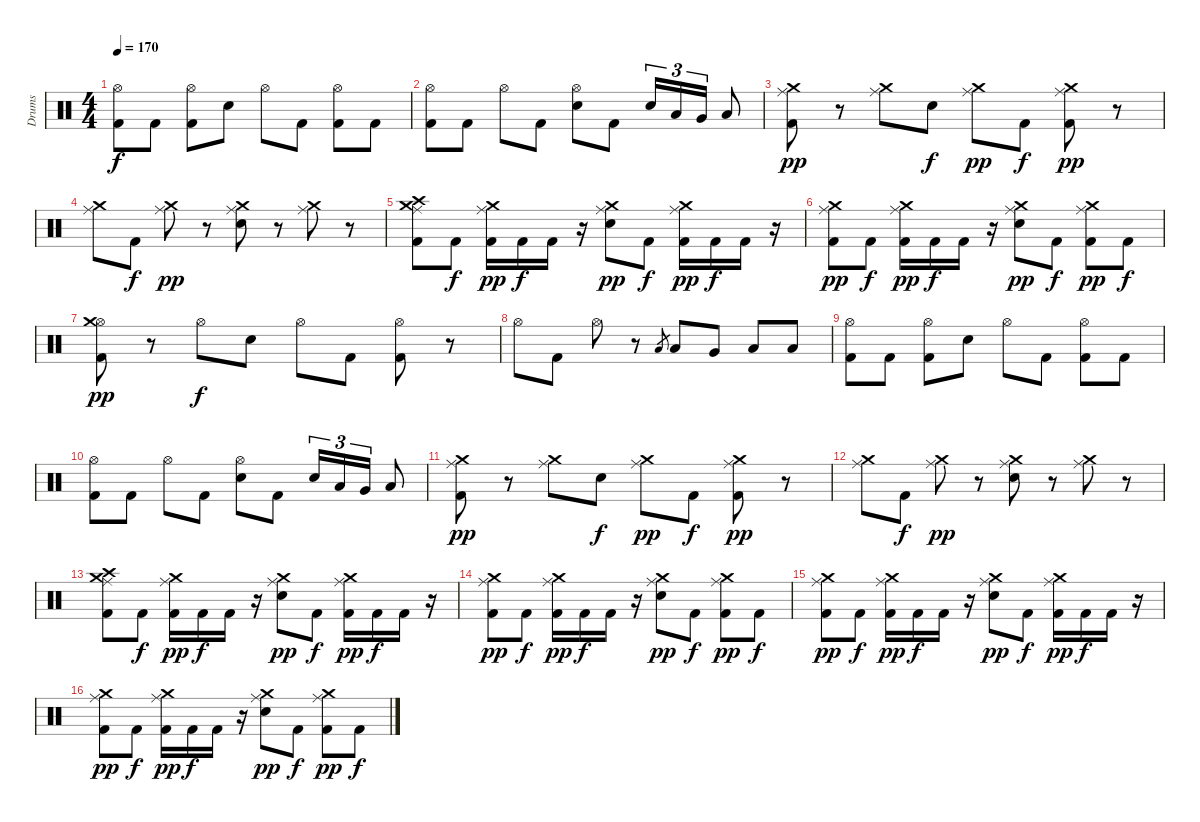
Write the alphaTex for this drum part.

\track ("Drums" "Drums") {instrument percussion}
\staff {score}
\articulation defaults
\ts (4 4)
\tempo 170
\clef neutral
\ks c
("Hi-Hat (open)" "Kick (hit) 2").8{dy f} "Kick (hit) 2".8 ("Hi-Hat (open)" "Kick (hit) 2").8 "Electric Snare (hit)".8 "Hi-Hat (open)".8 "Kick (hit) 2".8 ("Hi-Hat (open)" "Kick (hit) 2").8 "Kick (hit) 2".8 |
("Hi-Hat (open)" "Kick (hit) 2").8 "Kick (hit) 2".8 "Hi-Hat (open)".8 "Kick (hit) 2".8 ("Hi-Hat (open)" "Electric Snare (hit)").8 "Kick (hit) 2".8 "Electric Snare (hit)".16{tu (3 2)} "Low Tom (hit)".16{tu (3 2)} "Very Low Tom (hit)".16{tu (3 2)} "Low Floor Tom (hit)".8 |
("Ride (middle)" "Kick (hit) 2" "Crash medium (hit)").8{dy pp} r.8 ("Ride (middle)" "Crash medium (hit)").8 "Electric Snare (hit)".8{dy f} ("Ride (middle)" "Crash medium (hit)").8{dy pp} "Kick (hit) 2".8{dy f} ("Ride (middle)" "Kick (hit) 2" "Crash medium (hit)").8{dy pp} r.8 |
("Ride (middle)" "Crash medium (hit)").8 "Kick (hit) 2".8{dy f} ("Ride (middle)" "Crash medium (hit)").8{dy pp} r.8 ("Ride (middle)" "Electric Snare (hit)" "Crash medium (hit)").8 r.8 ("Ride (middle)" "Crash medium (hit)").8 r.8 |
("Ride (middle)" "Kick (hit) 2" "Crash high (hit)" "Crash medium (hit)").8 "Kick (hit) 2".8{dy f} ("Ride (middle)" "Kick (hit) 2" "Crash medium (hit)").16{dy pp} "Kick (hit) 2".16{dy f} "Kick (hit) 2".16 r.16 ("Ride (middle)" "Electric Snare (hit)" "Crash medium (hit)").8{dy pp} "Kick (hit) 2".8{dy f} ("Ride (middle)" "Kick (hit) 2" "Crash medium (hit)").16{dy pp} "Kick (hit) 2".16{dy f} "Kick (hit) 2".16 r.16 |
("Ride (middle)" "Kick (hit) 2" "Crash medium (hit)").8{dy pp} "Kick (hit) 2".8{dy f} ("Ride (middle)" "Kick (hit) 2" "Crash medium (hit)").16{dy pp} "Kick (hit) 2".16{dy f} "Kick (hit) 2".16 r.16 ("Ride (middle)" "Electric Snare (hit)" "Crash medium (hit)").8{dy pp} "Kick (hit) 2".8{dy f} ("Ride (middle)" "Kick (hit) 2" "Crash medium (hit)").8{dy pp} "Kick (hit) 2".8{dy f} |
("Hi-Hat (open)" "Kick (hit) 2" "Crash medium (hit)").8{dy pp} r.8 "Hi-Hat (open)".8{dy f} "Electric Snare (hit)".8 "Hi-Hat (open)".8 "Kick (hit) 2".8 ("Hi-Hat (open)" "Kick (hit) 2").8 r.8 |
"Hi-Hat (open)".8 "Kick (hit) 2".8 "Hi-Hat (open)".8 r.8 "Low Tom (hit)".8{gr} "Low Tom (hit)".8 "Very Low Tom (hit)".8 "Low Floor Tom (hit)".8 "Low Floor Tom (hit)".8 |
("Hi-Hat (open)" "Kick (hit) 2").8 "Kick (hit) 2".8 ("Hi-Hat (open)" "Kick (hit) 2").8 "Electric Snare (hit)".8 "Hi-Hat (open)".8 "Kick (hit) 2".8 ("Hi-Hat (open)" "Kick (hit) 2").8 "Kick (hit) 2".8 |
("Hi-Hat (open)" "Kick (hit) 2").8 "Kick (hit) 2".8 "Hi-Hat (open)".8 "Kick (hit) 2".8 ("Hi-Hat (open)" "Electric Snare (hit)").8 "Kick (hit) 2".8 "Electric Snare (hit)".16{tu (3 2)} "Low Tom (hit)".16{tu (3 2)} "Very Low Tom (hit)".16{tu (3 2)} "Low Floor Tom (hit)".8 |
("Ride (middle)" "Kick (hit) 2" "Crash medium (hit)").8{dy pp} r.8 ("Ride (middle)" "Crash medium (hit)").8 "Electric Snare (hit)".8{dy f} ("Ride (middle)" "Crash medium (hit)").8{dy pp} "Kick (hit) 2".8{dy f} ("Ride (middle)" "Kick (hit) 2" "Crash medium (hit)").8{dy pp} r.8 |
("Ride (middle)" "Crash medium (hit)").8 "Kick (hit) 2".8{dy f} ("Ride (middle)" "Crash medium (hit)").8{dy pp} r.8 ("Ride (middle)" "Electric Snare (hit)" "Crash medium (hit)").8 r.8 ("Ride (middle)" "Crash medium (hit)").8 r.8 |
("Ride (middle)" "Kick (hit) 2" "Crash high (hit)" "Crash medium (hit)").8 "Kick (hit) 2".8{dy f} ("Ride (middle)" "Kick (hit) 2" "Crash medium (hit)").16{dy pp} "Kick (hit) 2".16{dy f} "Kick (hit) 2".16 r.16 ("Ride (middle)" "Electric Snare (hit)" "Crash medium (hit)").8{dy pp} "Kick (hit) 2".8{dy f} ("Ride (middle)" "Kick (hit) 2" "Crash medium (hit)").16{dy pp} "Kick (hit) 2".16{dy f} "Kick (hit) 2".16 r.16 |
("Ride (middle)" "Kick (hit) 2" "Crash medium (hit)").8{dy pp} "Kick (hit) 2".8{dy f} ("Ride (middle)" "Kick (hit) 2" "Crash medium (hit)").16{dy pp} "Kick (hit) 2".16{dy f} "Kick (hit) 2".16 r.16 ("Ride (middle)" "Electric Snare (hit)" "Crash medium (hit)").8{dy pp} "Kick (hit) 2".8{dy f} ("Ride (middle)" "Kick (hit) 2" "Crash medium (hit)").8{dy pp} "Kick (hit) 2".8{dy f} |
("Ride (middle)" "Kick (hit) 2" "Crash medium (hit)").8{dy pp} "Kick (hit) 2".8{dy f} ("Ride (middle)" "Kick (hit) 2" "Crash medium (hit)").16{dy pp} "Kick (hit) 2".16{dy f} "Kick (hit) 2".16 r.16 ("Ride (middle)" "Electric Snare (hit)" "Crash medium (hit)").8{dy pp} "Kick (hit) 2".8{dy f} ("Ride (middle)" "Kick (hit) 2" "Crash medium (hit)").16{dy pp} "Kick (hit) 2".16{dy f} "Kick (hit) 2".16 r.16 |
("Ride (middle)" "Kick (hit) 2" "Crash medium (hit)").8{dy pp} "Kick (hit) 2".8{dy f} ("Ride (middle)" "Kick (hit) 2" "Crash medium (hit)").16{dy pp} "Kick (hit) 2".16{dy f} "Kick (hit) 2".16 r.16 ("Ride (middle)" "Electric Snare (hit)" "Crash medium (hit)").8{dy pp} "Kick (hit) 2".8{dy f} ("Ride (middle)" "Kick (hit) 2" "Crash medium (hit)").8{dy pp} "Kick (hit) 2".8{dy f}
